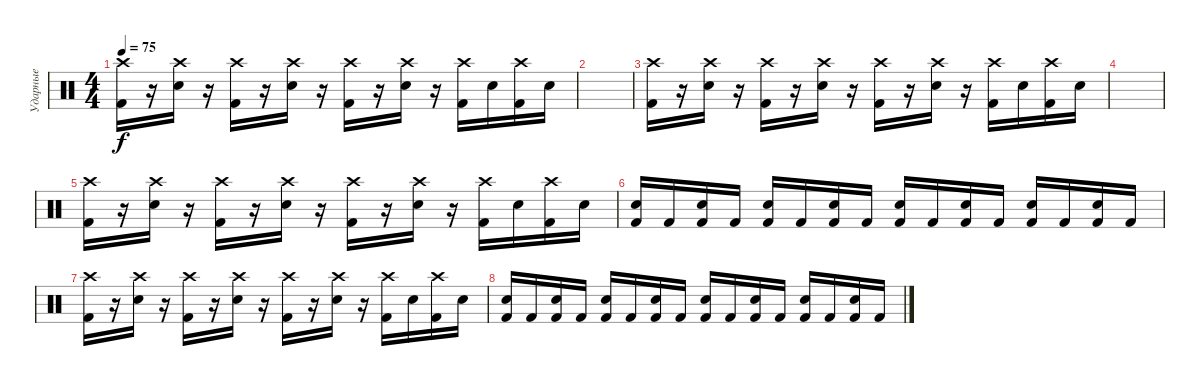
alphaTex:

\track ("Ударные" "Ударные") {instrument percussion}
\staff {score}
\articulation defaults
\ts (4 4)
\tempo 75
\clef neutral
\ks c
("Crash high (hit)" "Kick (hit) 2").16{dy f} r.16 ("Crash high (hit)" "Snare (hit) 2").16 r.16 ("Crash high (hit)" "Kick (hit) 2").16 r.16 ("Crash high (hit)" "Snare (hit) 2").16 r.16 ("Crash high (hit)" "Kick (hit) 2").16 r.16 ("Crash high (hit)" "Snare (hit) 2").16 r.16 ("Crash high (hit)" "Kick (hit) 2").16 "Snare (hit) 2".16 ("Crash high (hit)" "Kick (hit) 2").16 "Snare (hit) 2".16 |
|
("Crash high (hit)" "Kick (hit) 2").16 r.16 ("Crash high (hit)" "Snare (hit) 2").16 r.16 ("Crash high (hit)" "Kick (hit) 2").16 r.16 ("Crash high (hit)" "Snare (hit) 2").16 r.16 ("Crash high (hit)" "Kick (hit) 2").16 r.16 ("Crash high (hit)" "Snare (hit) 2").16 r.16 ("Crash high (hit)" "Kick (hit) 2").16 "Snare (hit) 2".16 ("Crash high (hit)" "Kick (hit) 2").16 "Snare (hit) 2".16 |
|
("Crash high (hit)" "Kick (hit) 2").16 r.16 ("Crash high (hit)" "Snare (hit) 2").16 r.16 ("Crash high (hit)" "Kick (hit) 2").16 r.16 ("Crash high (hit)" "Snare (hit) 2").16 r.16 ("Crash high (hit)" "Kick (hit) 2").16 r.16 ("Crash high (hit)" "Snare (hit) 2").16 r.16 ("Crash high (hit)" "Kick (hit) 2").16 "Snare (hit) 2".16 ("Crash high (hit)" "Kick (hit) 2").16 "Snare (hit) 2".16 |
("Snare (hit) 2" "Kick (hit) 2").16 "Kick (hit) 2".16 ("Snare (hit) 2" "Kick (hit) 2").16 "Kick (hit) 2".16 ("Snare (hit) 2" "Kick (hit) 2").16 "Kick (hit) 2".16 ("Snare (hit) 2" "Kick (hit) 2").16 "Kick (hit) 2".16 ("Snare (hit) 2" "Kick (hit) 2").16 "Kick (hit) 2".16 ("Snare (hit) 2" "Kick (hit) 2").16 "Kick (hit) 2".16 ("Snare (hit) 2" "Kick (hit) 2").16 "Kick (hit) 2".16 ("Snare (hit) 2" "Kick (hit) 2").16 "Kick (hit) 2".16 |
("Crash high (hit)" "Kick (hit) 2").16 r.16 ("Crash high (hit)" "Snare (hit) 2").16 r.16 ("Crash high (hit)" "Kick (hit) 2").16 r.16 ("Crash high (hit)" "Snare (hit) 2").16 r.16 ("Crash high (hit)" "Kick (hit) 2").16 r.16 ("Crash high (hit)" "Snare (hit) 2").16 r.16 ("Crash high (hit)" "Kick (hit) 2").16 "Snare (hit) 2".16 ("Crash high (hit)" "Kick (hit) 2").16 "Snare (hit) 2".16 |
("Snare (hit) 2" "Kick (hit) 2").16 "Kick (hit) 2".16 ("Snare (hit) 2" "Kick (hit) 2").16 "Kick (hit) 2".16 ("Snare (hit) 2" "Kick (hit) 2").16 "Kick (hit) 2".16 ("Snare (hit) 2" "Kick (hit) 2").16 "Kick (hit) 2".16 ("Snare (hit) 2" "Kick (hit) 2").16 "Kick (hit) 2".16 ("Snare (hit) 2" "Kick (hit) 2").16 "Kick (hit) 2".16 ("Snare (hit) 2" "Kick (hit) 2").16 "Kick (hit) 2".16 ("Snare (hit) 2" "Kick (hit) 2").16 "Kick (hit) 2".16
